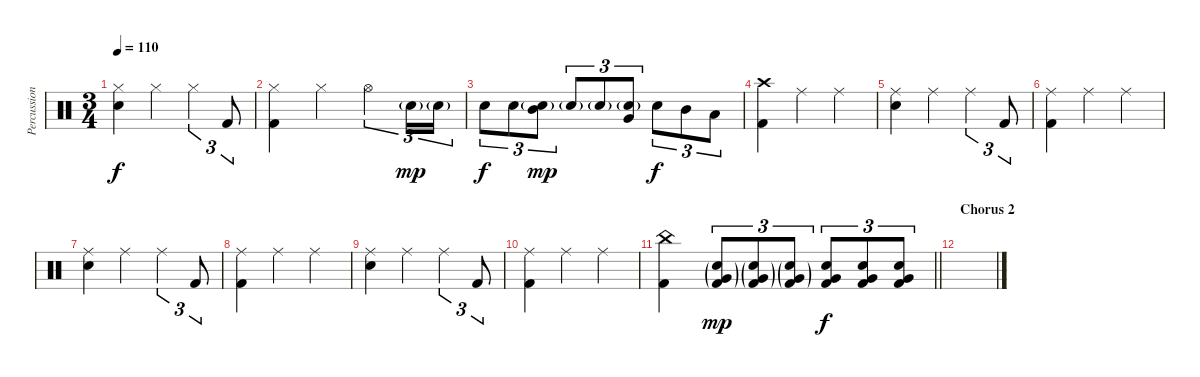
\track ("Percussion" "Percussion") {instrument percussion}
\staff {score}
\articulation defaults
\ts (3 4)
\tempo 110
\clef neutral
\ks c
("Hi-Hat (closed)" "Snare (hit) 2").4{dy f} "Hi-Hat (closed)".4 "Hi-Hat (closed)".4{tu (3 2)} "Kick (hit) 2".8{tu (3 2)} |
("Hi-Hat (closed)" "Kick (hit) 2").4 "Hi-Hat (closed)".4 "Hi-Hat (open)".4{tu (3 2)} "Snare (hit) 2"{g}.16{tu (3 2) dy mp} "Snare (hit) 2"{g}.16{tu (3 2)} |
"Snare (hit) 2".8{tu (3 2) dy f} "Snare (hit) 2".8{tu (3 2)} ("Mid Tom (hit)" "Snare (hit) 2"{g}).8{tu (3 2) dy mp} "Snare (hit) 2"{g}.8{tu (3 2)} "Snare (hit) 2"{g}.8{tu (3 2)} ("Very Low Tom (hit)" "Snare (hit) 2"{g}).8{tu (3 2)} "Snare (hit) 2".8{tu (3 2) dy f} "Mid Tom (hit)".8{tu (3 2)} "Low Tom (hit)".8{tu (3 2)} |
("Crash high (hit)" "Kick (hit) 2").4 "Ride (middle)".4 "Ride (middle)".4 |
("Ride (middle)" "Snare (hit) 2").4 "Ride (middle)".4 "Ride (middle)".4{tu (3 2)} "Kick (hit) 2".8{tu (3 2)} |
("Ride (middle)" "Kick (hit) 2").4 "Ride (middle)".4 "Ride (middle)".4 |
("Ride (middle)" "Snare (hit) 2").4 "Ride (middle)".4 "Ride (middle)".4{tu (3 2)} "Kick (hit) 2".8{tu (3 2)} |
("Ride (middle)" "Kick (hit) 2").4 "Ride (middle)".4 "Ride (middle)".4 |
("Ride (middle)" "Snare (hit) 2").4 "Ride (middle)".4 "Ride (middle)".4{tu (3 2)} "Kick (hit) 2".8{tu (3 2)} |
("Ride (middle)" "Kick (hit) 2").4 "Ride (middle)".4 "Ride (middle)".4 |
\barLineRight lightlight
("China (hit)" "Kick (hit) 2").4 ("Very Low Tom (hit)"{g} "Snare (hit) 2"{g} "Kick (hit) 2"{g}).8{tu (3 2) dy mp} ("Very Low Tom (hit)"{g} "Snare (hit) 2"{g} "Kick (hit) 2"{g}).8{tu (3 2)} ("Very Low Tom (hit)"{g} "Snare (hit) 2"{g} "Kick (hit) 2"{g}).8{tu (3 2)} ("Very Low Tom (hit)" "Snare (hit) 2" "Kick (hit) 2").8{tu (3 2) dy f} ("Very Low Tom (hit)" "Snare (hit) 2" "Kick (hit) 2").8{tu (3 2)} ("Very Low Tom (hit)" "Snare (hit) 2" "Kick (hit) 2").8{tu (3 2)} |
\section ("" "Chorus 2")
